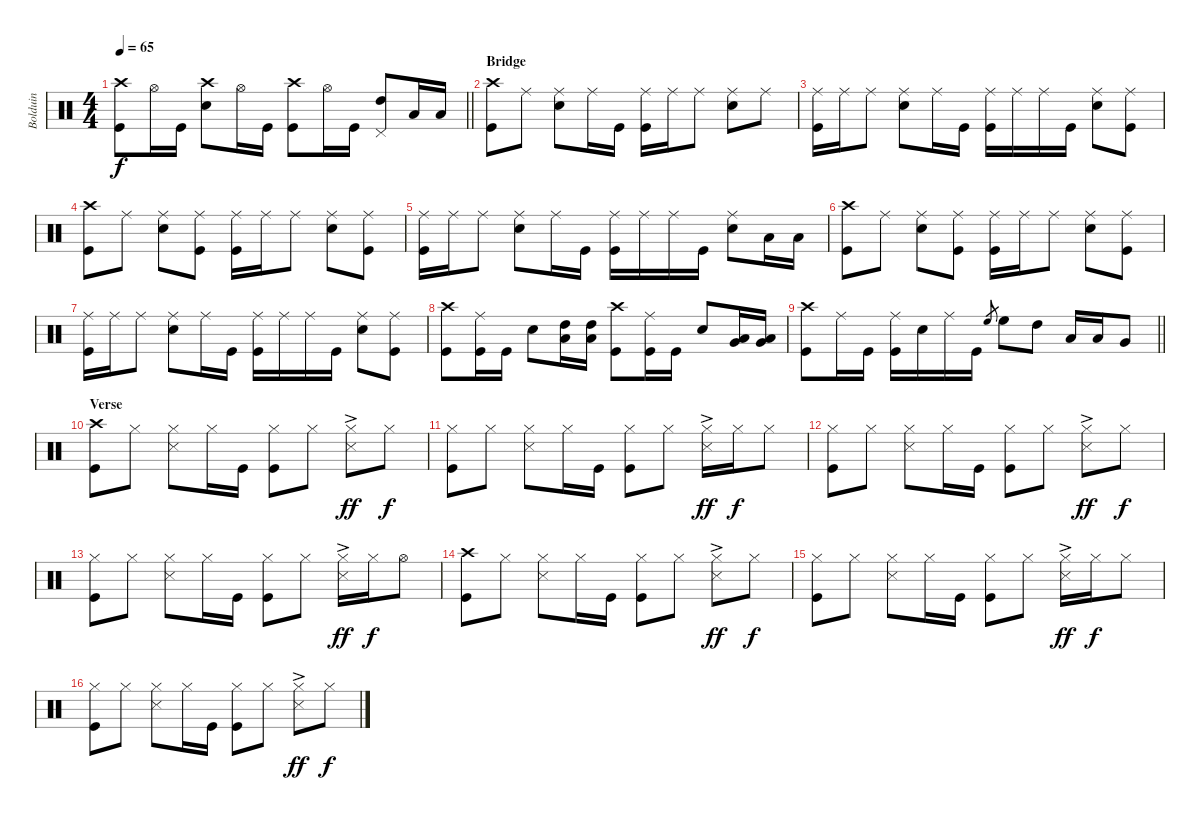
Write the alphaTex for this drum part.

\track ("Bolduin" "Bolduin") {instrument percussion}
\staff {score}
\articulation defaults
\ts (4 4)
\tempo 65
\clef neutral
\barLineRight lightlight
\ks c
("Kick (hit)" "Crash high (hit)").8{dy f} "Hi-Hat (open)".16 "Kick (hit)".16 ("Crash high (hit)" "Snare (hit) 2").8 "Hi-Hat (open)".16 "Kick (hit)".16 ("Kick (hit)" "Crash high (hit)").8 "Hi-Hat (open)".16 "Kick (hit)".16 ("High Tom (hit)" "Pedal Hi-Hat (hit)").8 "Low Tom (hit)".16 "Low Tom (hit)".16 |
\section ("" "Bridge")
\ks aminor
("Kick (hit)" "Crash high (hit)").8 "Ride (middle)".8 ("Ride (middle)" "Snare (hit) 2").8 "Ride (middle)".16 "Kick (hit)".16 ("Kick (hit)" "Ride (middle)").16 "Ride (middle)".16 "Ride (middle)".8 ("Ride (middle)" "Snare (hit) 2").8 "Ride (middle)".8 |
("Kick (hit)" "Ride (middle)").16 "Ride (middle)".16 "Ride (middle)".8 ("Ride (middle)" "Snare (hit) 2").8 "Ride (middle)".16 "Kick (hit)".16 ("Kick (hit)" "Ride (middle)").16 "Ride (middle)".16 "Ride (middle)".16 "Kick (hit)".16 ("Ride (middle)" "Snare (hit) 2").8 ("Ride (middle)" "Kick (hit)").8 |
("Kick (hit)" "Crash high (hit)").8 "Ride (middle)".8 ("Ride (middle)" "Snare (hit) 2").8 ("Ride (middle)" "Kick (hit)").8 ("Kick (hit)" "Ride (middle)").16 "Ride (middle)".16 "Ride (middle)".8 ("Ride (middle)" "Snare (hit) 2").8 ("Ride (middle)" "Kick (hit)").8 |
("Kick (hit)" "Ride (middle)").16 "Ride (middle)".16 "Ride (middle)".8 ("Ride (middle)" "Snare (hit) 2").8 "Ride (middle)".16 "Kick (hit)".16 ("Kick (hit)" "Ride (middle)").16 "Ride (middle)".16 "Ride (middle)".16 "Kick (hit)".16 ("Ride (middle)" "Snare (hit) 2").8 "Low Tom (hit)".16 "Low Tom (hit)".16 |
("Kick (hit)" "Crash high (hit)").8 "Ride (middle)".8 ("Ride (middle)" "Snare (hit) 2").8 ("Ride (middle)" "Kick (hit)").8 ("Kick (hit)" "Ride (middle)").16 "Ride (middle)".16 "Ride (middle)".8 ("Ride (middle)" "Snare (hit) 2").8 ("Ride (middle)" "Kick (hit)").8 |
("Kick (hit)" "Ride (middle)").16 "Ride (middle)".16 "Ride (middle)".8 ("Ride (middle)" "Snare (hit) 2").8 "Ride (middle)".16 "Kick (hit)".16 ("Kick (hit)" "Ride (middle)").16 "Ride (middle)".16 "Ride (middle)".16 "Kick (hit)".16 ("Ride (middle)" "Snare (hit) 2").8 ("Ride (middle)" "Kick (hit)").8 |
("Kick (hit)" "Crash high (hit)").8 ("Ride (middle)" "Kick (hit)").16 "Kick (hit)".16 "Snare (hit) 2".8 ("High Tom (hit)" "Low Tom (hit)").16 ("High Tom (hit)" "Low Tom (hit)").16 ("Kick (hit)" "Crash high (hit)").8 ("Ride (middle)" "Kick (hit)").16 "Kick (hit)".16 "Snare (hit) 2".8 ("Low Tom (hit)" "Very Low Tom (hit)").16 ("Low Tom (hit)" "Very Low Tom (hit)").16 |
\barLineRight lightlight
("Crash high (hit)" "Kick (hit)").8 "Ride (middle)".16 "Kick (hit)".16 ("Kick (hit)" "Ride (middle)").16 "Snare (hit) 2".16 "Ride (middle)".16 "Kick (hit)".16 "High Floor Tom (hit)".8{gr} "High Floor Tom (hit)".8 "High Tom (hit)".8 "Low Tom (hit)".16 "Low Tom (hit)".16 "Very Low Tom (hit)".8 |
\section ("" "Verse")
\ks c
("Kick (hit)" "Crash high (hit)").8 "Hi-Hat (closed)".8 ("Hi-Hat (closed)" "Snare (side stick) 3").8 "Hi-Hat (closed)".16 "Kick (hit)".16 ("Hi-Hat (closed)" "Kick (hit)").8 "Hi-Hat (closed)".8 ("Hi-Hat (closed)"{ac} "Snare (side stick) 3").8{dy ff} "Hi-Hat (closed)".8{dy f} |
("Kick (hit)" "Hi-Hat (closed)").8 "Hi-Hat (closed)".8 ("Hi-Hat (closed)" "Snare (side stick) 3").8 "Hi-Hat (closed)".16 "Kick (hit)".16 ("Hi-Hat (closed)" "Kick (hit)").8 "Hi-Hat (closed)".8 ("Hi-Hat (closed)"{ac} "Snare (side stick) 3").16{dy ff} "Hi-Hat (closed)".16{dy f} "Hi-Hat (closed)".8 |
("Kick (hit)" "Hi-Hat (closed)").8 "Hi-Hat (closed)".8 ("Hi-Hat (closed)" "Snare (side stick) 3").8 "Hi-Hat (closed)".16 "Kick (hit)".16 ("Hi-Hat (closed)" "Kick (hit)").8 "Hi-Hat (closed)".8 ("Hi-Hat (closed)"{ac} "Snare (side stick) 3").8{dy ff} "Hi-Hat (closed)".8{dy f} |
("Kick (hit)" "Hi-Hat (closed)").8 "Hi-Hat (closed)".8 ("Hi-Hat (closed)" "Snare (side stick) 3").8 "Hi-Hat (closed)".16 "Kick (hit)".16 ("Hi-Hat (closed)" "Kick (hit)").8 "Hi-Hat (closed)".8 ("Hi-Hat (closed)"{ac} "Snare (side stick) 3").16{dy ff} "Hi-Hat (closed)".16{dy f} "Hi-Hat (open)".8 |
("Kick (hit)" "Crash high (hit)").8 "Hi-Hat (closed)".8 ("Hi-Hat (closed)" "Snare (side stick) 3").8 "Hi-Hat (closed)".16 "Kick (hit)".16 ("Hi-Hat (closed)" "Kick (hit)").8 "Hi-Hat (closed)".8 ("Hi-Hat (closed)"{ac} "Snare (side stick) 3").8{dy ff} "Hi-Hat (closed)".8{dy f} |
("Kick (hit)" "Hi-Hat (closed)").8 "Hi-Hat (closed)".8 ("Hi-Hat (closed)" "Snare (side stick) 3").8 "Hi-Hat (closed)".16 "Kick (hit)".16 ("Hi-Hat (closed)" "Kick (hit)").8 "Hi-Hat (closed)".8 ("Hi-Hat (closed)" "Snare (side stick) 3"{ac}).16{dy ff} "Hi-Hat (closed)".16{dy f} "Hi-Hat (closed)".8 |
("Kick (hit)" "Hi-Hat (closed)").8 "Hi-Hat (closed)".8 ("Hi-Hat (closed)" "Snare (side stick) 3").8 "Hi-Hat (closed)".16 "Kick (hit)".16 ("Hi-Hat (closed)" "Kick (hit)").8 "Hi-Hat (closed)".8 ("Hi-Hat (closed)" "Snare (side stick) 3"{ac}).8{dy ff} "Hi-Hat (closed)".8{dy f}
